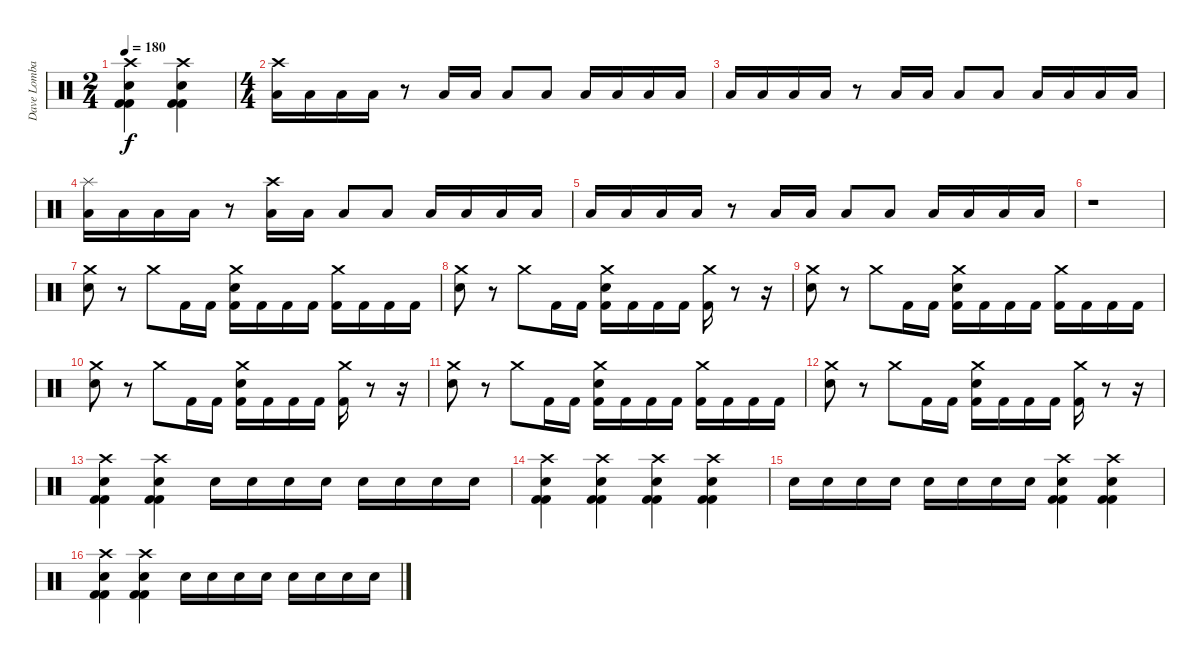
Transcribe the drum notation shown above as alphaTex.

\track ("Dave Lombardo" "Dave Lomba") {instrument percussion}
\staff {score}
\articulation defaults
\ts (2 4)
\tempo 180
\clef neutral
\ks c
("Crash high (hit)" "Electric Snare (hit)" "Kick (hit) 2" "Kick (hit) 2").4{dy f} ("Crash high (hit)" "Electric Snare (hit)" "Kick (hit) 2" "Kick (hit) 2").4 |
\ts (4 4)
("Crash high (hit)" "Low Floor Tom (hit)").16 "Low Floor Tom (hit)".16 "Low Floor Tom (hit)".16 "Low Floor Tom (hit)".16 r.8 "Low Floor Tom (hit)".16 "Low Floor Tom (hit)".16 "Low Floor Tom (hit)".8 "Low Floor Tom (hit)".8 "Low Floor Tom (hit)".16 "Low Floor Tom (hit)".16 "Low Floor Tom (hit)".16 "Low Floor Tom (hit)".16 |
"Low Floor Tom (hit)".16 "Low Floor Tom (hit)".16 "Low Floor Tom (hit)".16 "Low Floor Tom (hit)".16 r.8 "Low Floor Tom (hit)".16 "Low Floor Tom (hit)".16 "Low Floor Tom (hit)".8 "Low Floor Tom (hit)".8 "Low Floor Tom (hit)".16 "Low Floor Tom (hit)".16 "Low Floor Tom (hit)".16 "Low Floor Tom (hit)".16 |
("Splash (hit)" "Low Floor Tom (hit)").16 "Low Floor Tom (hit)".16 "Low Floor Tom (hit)".16 "Low Floor Tom (hit)".16 r.8 ("Crash high (hit)" "Low Floor Tom (hit)").16 "Low Floor Tom (hit)".16 "Low Floor Tom (hit)".8 "Low Floor Tom (hit)".8 "Low Floor Tom (hit)".16 "Low Floor Tom (hit)".16 "Low Floor Tom (hit)".16 "Low Floor Tom (hit)".16 |
"Low Floor Tom (hit)".16 "Low Floor Tom (hit)".16 "Low Floor Tom (hit)".16 "Low Floor Tom (hit)".16 r.8 "Low Floor Tom (hit)".16 "Low Floor Tom (hit)".16 "Low Floor Tom (hit)".8 "Low Floor Tom (hit)".8 "Low Floor Tom (hit)".16 "Low Floor Tom (hit)".16 "Low Floor Tom (hit)".16 "Low Floor Tom (hit)".16 |
r.1 |
("Crash medium (hit)" "Electric Snare (hit)").8 r.8 "Crash medium (hit)".8 "Kick (hit) 2".16 "Kick (hit) 2".16 ("Crash medium (hit)" "Electric Snare (hit)" "Kick (hit) 2").16 "Kick (hit) 2".16 "Kick (hit) 2".16 "Kick (hit) 2".16 ("Crash medium (hit)" "Kick (hit) 2").16 "Kick (hit) 2".16 "Kick (hit) 2".16 "Kick (hit) 2".16 |
("Crash medium (hit)" "Electric Snare (hit)").8 r.8 "Crash medium (hit)".8 "Kick (hit) 2".16 "Kick (hit) 2".16 ("Crash medium (hit)" "Electric Snare (hit)" "Kick (hit) 2").16 "Kick (hit) 2".16 "Kick (hit) 2".16 "Kick (hit) 2".16 ("Crash medium (hit)" "Kick (hit) 2").16 r.8 r.16 |
("Crash medium (hit)" "Electric Snare (hit)").8 r.8 "Crash medium (hit)".8 "Kick (hit) 2".16 "Kick (hit) 2".16 ("Crash medium (hit)" "Electric Snare (hit)" "Kick (hit) 2").16 "Kick (hit) 2".16 "Kick (hit) 2".16 "Kick (hit) 2".16 ("Crash medium (hit)" "Kick (hit) 2").16 "Kick (hit) 2".16 "Kick (hit) 2".16 "Kick (hit) 2".16 |
("Crash medium (hit)" "Electric Snare (hit)").8 r.8 "Crash medium (hit)".8 "Kick (hit) 2".16 "Kick (hit) 2".16 ("Crash medium (hit)" "Electric Snare (hit)" "Kick (hit) 2").16 "Kick (hit) 2".16 "Kick (hit) 2".16 "Kick (hit) 2".16 ("Crash medium (hit)" "Kick (hit) 2").16 r.8 r.16 |
("Crash medium (hit)" "Electric Snare (hit)").8 r.8 "Crash medium (hit)".8 "Kick (hit) 2".16 "Kick (hit) 2".16 ("Crash medium (hit)" "Electric Snare (hit)" "Kick (hit) 2").16 "Kick (hit) 2".16 "Kick (hit) 2".16 "Kick (hit) 2".16 ("Crash medium (hit)" "Kick (hit) 2").16 "Kick (hit) 2".16 "Kick (hit) 2".16 "Kick (hit) 2".16 |
("Crash medium (hit)" "Electric Snare (hit)").8 r.8 "Crash medium (hit)".8 "Kick (hit) 2".16 "Kick (hit) 2".16 ("Crash medium (hit)" "Electric Snare (hit)" "Kick (hit) 2").16 "Kick (hit) 2".16 "Kick (hit) 2".16 "Kick (hit) 2".16 ("Crash medium (hit)" "Kick (hit) 2").16 r.8 r.16 |
("Crash high (hit)" "Electric Snare (hit)" "Kick (hit) 2" "Kick (hit) 2").4 ("Crash high (hit)" "Electric Snare (hit)" "Kick (hit) 2" "Kick (hit) 2").4 "Electric Snare (hit)".16 "Electric Snare (hit)".16 "Electric Snare (hit)".16 "Electric Snare (hit)".16 "Electric Snare (hit)".16 "Electric Snare (hit)".16 "Electric Snare (hit)".16 "Electric Snare (hit)".16 |
("Crash high (hit)" "Electric Snare (hit)" "Kick (hit) 2" "Kick (hit) 2").4 ("Crash high (hit)" "Electric Snare (hit)" "Kick (hit) 2" "Kick (hit) 2").4 ("Crash high (hit)" "Electric Snare (hit)" "Kick (hit) 2" "Kick (hit) 2").4 ("Crash high (hit)" "Electric Snare (hit)" "Kick (hit) 2" "Kick (hit) 2").4 |
"Electric Snare (hit)".16 "Electric Snare (hit)".16 "Electric Snare (hit)".16 "Electric Snare (hit)".16 "Electric Snare (hit)".16 "Electric Snare (hit)".16 "Electric Snare (hit)".16 "Electric Snare (hit)".16 ("Crash high (hit)" "Electric Snare (hit)" "Kick (hit) 2" "Kick (hit) 2").4 ("Crash high (hit)" "Electric Snare (hit)" "Kick (hit) 2" "Kick (hit) 2").4 |
("Crash high (hit)" "Electric Snare (hit)" "Kick (hit) 2" "Kick (hit) 2").4 ("Crash high (hit)" "Electric Snare (hit)" "Kick (hit) 2" "Kick (hit) 2").4 "Electric Snare (hit)".16 "Electric Snare (hit)".16 "Electric Snare (hit)".16 "Electric Snare (hit)".16 "Electric Snare (hit)".16 "Electric Snare (hit)".16 "Electric Snare (hit)".16 "Electric Snare (hit)".16
